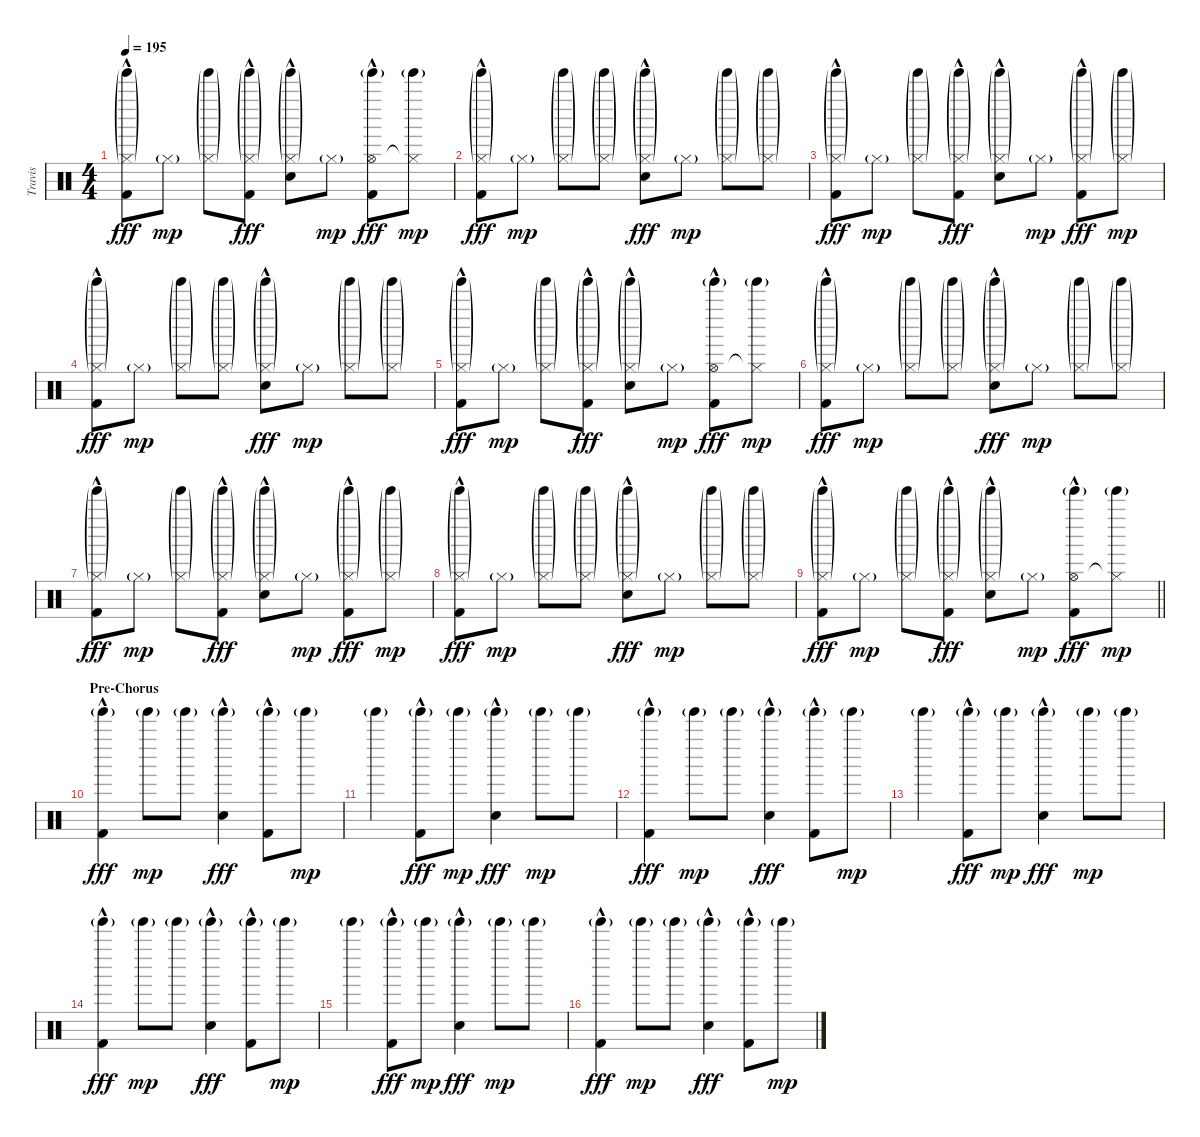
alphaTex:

\track ("Travis" "Travis") {instrument percussion}
\staff {score}
\articulation defaults
\ts (4 4)
\tempo 195
\clef neutral
\ks c
("Tinkle Bell (hit)"{g} "Hi-Hat (closed)"{g} "Kick (hit) 2"{hac}).8{dy fff} "Hi-Hat (closed)"{g}.8{dy mp} ("Tinkle Bell (hit)"{g} "Hi-Hat (closed)"{g}).8 ("Tinkle Bell (hit)"{g} "Hi-Hat (closed)"{g} "Kick (hit) 2"{hac}).8{dy fff} ("Tinkle Bell (hit)"{g} "Hi-Hat (closed)"{g} "Electric Snare (hit)"{hac}).8 "Hi-Hat (closed)"{g}.8{dy mp} ("Tinkle Bell (hit)"{g} "Hi-Hat (open)" "Kick (hit) 2"{hac}).8{dy fff} ("Tinkle Bell (hit)"{g} "Hi-Hat (closed)"{t}).8{dy mp} |
("Tinkle Bell (hit)"{g} "Hi-Hat (closed)"{g} "Kick (hit) 2"{hac}).8{dy fff} "Hi-Hat (closed)"{g}.8{dy mp} ("Tinkle Bell (hit)"{g} "Hi-Hat (closed)"{g}).8 ("Tinkle Bell (hit)"{g} "Hi-Hat (closed)"{g}).8 ("Tinkle Bell (hit)"{g} "Hi-Hat (closed)"{g} "Electric Snare (hit)"{hac}).8{dy fff} "Hi-Hat (closed)"{g}.8{dy mp} ("Tinkle Bell (hit)"{g} "Hi-Hat (closed)"{g}).8 ("Tinkle Bell (hit)"{g} "Hi-Hat (closed)"{g}).8 |
("Tinkle Bell (hit)"{g} "Hi-Hat (closed)"{g} "Kick (hit) 2"{hac}).8{dy fff} "Hi-Hat (closed)"{g}.8{dy mp} ("Tinkle Bell (hit)"{g} "Hi-Hat (closed)"{g}).8 ("Tinkle Bell (hit)"{g} "Hi-Hat (closed)"{g} "Kick (hit) 2"{hac}).8{dy fff} ("Tinkle Bell (hit)"{g} "Hi-Hat (closed)"{g} "Electric Snare (hit)"{hac}).8 "Hi-Hat (closed)"{g}.8{dy mp} ("Tinkle Bell (hit)"{g} "Hi-Hat (closed)"{g} "Kick (hit) 2"{hac}).8{dy fff} ("Tinkle Bell (hit)"{g} "Hi-Hat (closed)"{g}).8{dy mp} |
("Tinkle Bell (hit)"{g} "Hi-Hat (closed)"{g} "Kick (hit) 2"{hac}).8{dy fff} "Hi-Hat (closed)"{g}.8{dy mp} ("Tinkle Bell (hit)"{g} "Hi-Hat (closed)"{g}).8 ("Tinkle Bell (hit)"{g} "Hi-Hat (closed)"{g}).8 ("Tinkle Bell (hit)"{g} "Hi-Hat (closed)"{g} "Electric Snare (hit)"{hac}).8{dy fff} "Hi-Hat (closed)"{g}.8{dy mp} ("Tinkle Bell (hit)"{g} "Hi-Hat (closed)"{g}).8 ("Tinkle Bell (hit)"{g} "Hi-Hat (closed)"{g}).8 |
("Tinkle Bell (hit)"{g} "Hi-Hat (closed)"{g} "Kick (hit) 2"{hac}).8{dy fff} "Hi-Hat (closed)"{g}.8{dy mp} ("Tinkle Bell (hit)"{g} "Hi-Hat (closed)"{g}).8 ("Tinkle Bell (hit)"{g} "Hi-Hat (closed)"{g} "Kick (hit) 2"{hac}).8{dy fff} ("Tinkle Bell (hit)"{g} "Hi-Hat (closed)"{g} "Electric Snare (hit)"{hac}).8 "Hi-Hat (closed)"{g}.8{dy mp} ("Tinkle Bell (hit)"{g} "Hi-Hat (open)" "Kick (hit) 2"{hac}).8{dy fff} ("Tinkle Bell (hit)"{g} "Hi-Hat (closed)"{t}).8{dy mp} |
("Tinkle Bell (hit)"{g} "Hi-Hat (closed)"{g} "Kick (hit) 2"{hac}).8{dy fff} "Hi-Hat (closed)"{g}.8{dy mp} ("Tinkle Bell (hit)"{g} "Hi-Hat (closed)"{g}).8 ("Tinkle Bell (hit)"{g} "Hi-Hat (closed)"{g}).8 ("Tinkle Bell (hit)"{g} "Hi-Hat (closed)"{g} "Electric Snare (hit)"{hac}).8{dy fff} "Hi-Hat (closed)"{g}.8{dy mp} ("Tinkle Bell (hit)"{g} "Hi-Hat (closed)"{g}).8 ("Tinkle Bell (hit)"{g} "Hi-Hat (closed)"{g}).8 |
("Tinkle Bell (hit)"{g} "Hi-Hat (closed)"{g} "Kick (hit) 2"{hac}).8{dy fff} "Hi-Hat (closed)"{g}.8{dy mp} ("Tinkle Bell (hit)"{g} "Hi-Hat (closed)"{g}).8 ("Tinkle Bell (hit)"{g} "Hi-Hat (closed)"{g} "Kick (hit) 2"{hac}).8{dy fff} ("Tinkle Bell (hit)"{g} "Hi-Hat (closed)"{g} "Electric Snare (hit)"{hac}).8 "Hi-Hat (closed)"{g}.8{dy mp} ("Tinkle Bell (hit)"{g} "Hi-Hat (closed)"{g} "Kick (hit) 2"{hac}).8{dy fff} ("Tinkle Bell (hit)"{g} "Hi-Hat (closed)"{g}).8{dy mp} |
("Tinkle Bell (hit)"{g} "Hi-Hat (closed)"{g} "Kick (hit) 2"{hac}).8{dy fff} "Hi-Hat (closed)"{g}.8{dy mp} ("Tinkle Bell (hit)"{g} "Hi-Hat (closed)"{g}).8 ("Tinkle Bell (hit)"{g} "Hi-Hat (closed)"{g}).8 ("Tinkle Bell (hit)"{g} "Hi-Hat (closed)"{g} "Electric Snare (hit)"{hac}).8{dy fff} "Hi-Hat (closed)"{g}.8{dy mp} ("Tinkle Bell (hit)"{g} "Hi-Hat (closed)"{g}).8 ("Tinkle Bell (hit)"{g} "Hi-Hat (closed)"{g}).8 |
\barLineRight lightlight
("Tinkle Bell (hit)"{g} "Hi-Hat (closed)"{g} "Kick (hit) 2"{hac}).8{dy fff} "Hi-Hat (closed)"{g}.8{dy mp} ("Tinkle Bell (hit)"{g} "Hi-Hat (closed)"{g}).8 ("Tinkle Bell (hit)"{g} "Hi-Hat (closed)"{g} "Kick (hit) 2"{hac}).8{dy fff} ("Tinkle Bell (hit)"{g} "Hi-Hat (closed)"{g} "Electric Snare (hit)"{hac}).8 "Hi-Hat (closed)"{g}.8{dy mp} ("Tinkle Bell (hit)"{g} "Hi-Hat (open)" "Kick (hit) 2"{hac}).8{dy fff} ("Tinkle Bell (hit)"{g} "Hi-Hat (closed)"{t}).8{dy mp} |
\section ("" "Pre-Chorus")
("Tinkle Bell (hit)"{g} "Kick (hit) 2"{hac}).4{dy fff} "Tinkle Bell (hit)"{g}.8{dy mp} "Tinkle Bell (hit)"{g}.8 ("Tinkle Bell (hit)"{g} "Electric Snare (hit)"{hac}).4{dy fff} ("Tinkle Bell (hit)"{g} "Kick (hit) 2"{hac}).8 "Tinkle Bell (hit)"{g}.8{dy mp} |
"Tinkle Bell (hit)"{g}.4 ("Tinkle Bell (hit)"{g} "Kick (hit) 2"{hac}).8{dy fff} "Tinkle Bell (hit)"{g}.8{dy mp} ("Tinkle Bell (hit)"{g} "Electric Snare (hit)"{hac}).4{dy fff} "Tinkle Bell (hit)"{g}.8{dy mp} "Tinkle Bell (hit)"{g}.8 |
("Tinkle Bell (hit)"{g} "Kick (hit) 2"{hac}).4{dy fff} "Tinkle Bell (hit)"{g}.8{dy mp} "Tinkle Bell (hit)"{g}.8 ("Tinkle Bell (hit)"{g} "Electric Snare (hit)"{hac}).4{dy fff} ("Tinkle Bell (hit)"{g} "Kick (hit) 2"{hac}).8 "Tinkle Bell (hit)"{g}.8{dy mp} |
"Tinkle Bell (hit)"{g}.4 ("Tinkle Bell (hit)"{g} "Kick (hit) 2"{hac}).8{dy fff} "Tinkle Bell (hit)"{g}.8{dy mp} ("Tinkle Bell (hit)"{g} "Electric Snare (hit)"{hac}).4{dy fff} "Tinkle Bell (hit)"{g}.8{dy mp} "Tinkle Bell (hit)"{g}.8 |
("Tinkle Bell (hit)"{g} "Kick (hit) 2"{hac}).4{dy fff} "Tinkle Bell (hit)"{g}.8{dy mp} "Tinkle Bell (hit)"{g}.8 ("Tinkle Bell (hit)"{g} "Electric Snare (hit)"{hac}).4{dy fff} ("Tinkle Bell (hit)"{g} "Kick (hit) 2"{hac}).8 "Tinkle Bell (hit)"{g}.8{dy mp} |
"Tinkle Bell (hit)"{g}.4 ("Tinkle Bell (hit)"{g} "Kick (hit) 2"{hac}).8{dy fff} "Tinkle Bell (hit)"{g}.8{dy mp} ("Tinkle Bell (hit)"{g} "Electric Snare (hit)"{hac}).4{dy fff} "Tinkle Bell (hit)"{g}.8{dy mp} "Tinkle Bell (hit)"{g}.8 |
("Tinkle Bell (hit)"{g} "Kick (hit) 2"{hac}).4{dy fff} "Tinkle Bell (hit)"{g}.8{dy mp} "Tinkle Bell (hit)"{g}.8 ("Tinkle Bell (hit)"{g} "Electric Snare (hit)"{hac}).4{dy fff} ("Tinkle Bell (hit)"{g} "Kick (hit) 2"{hac}).8 "Tinkle Bell (hit)"{g}.8{dy mp}
